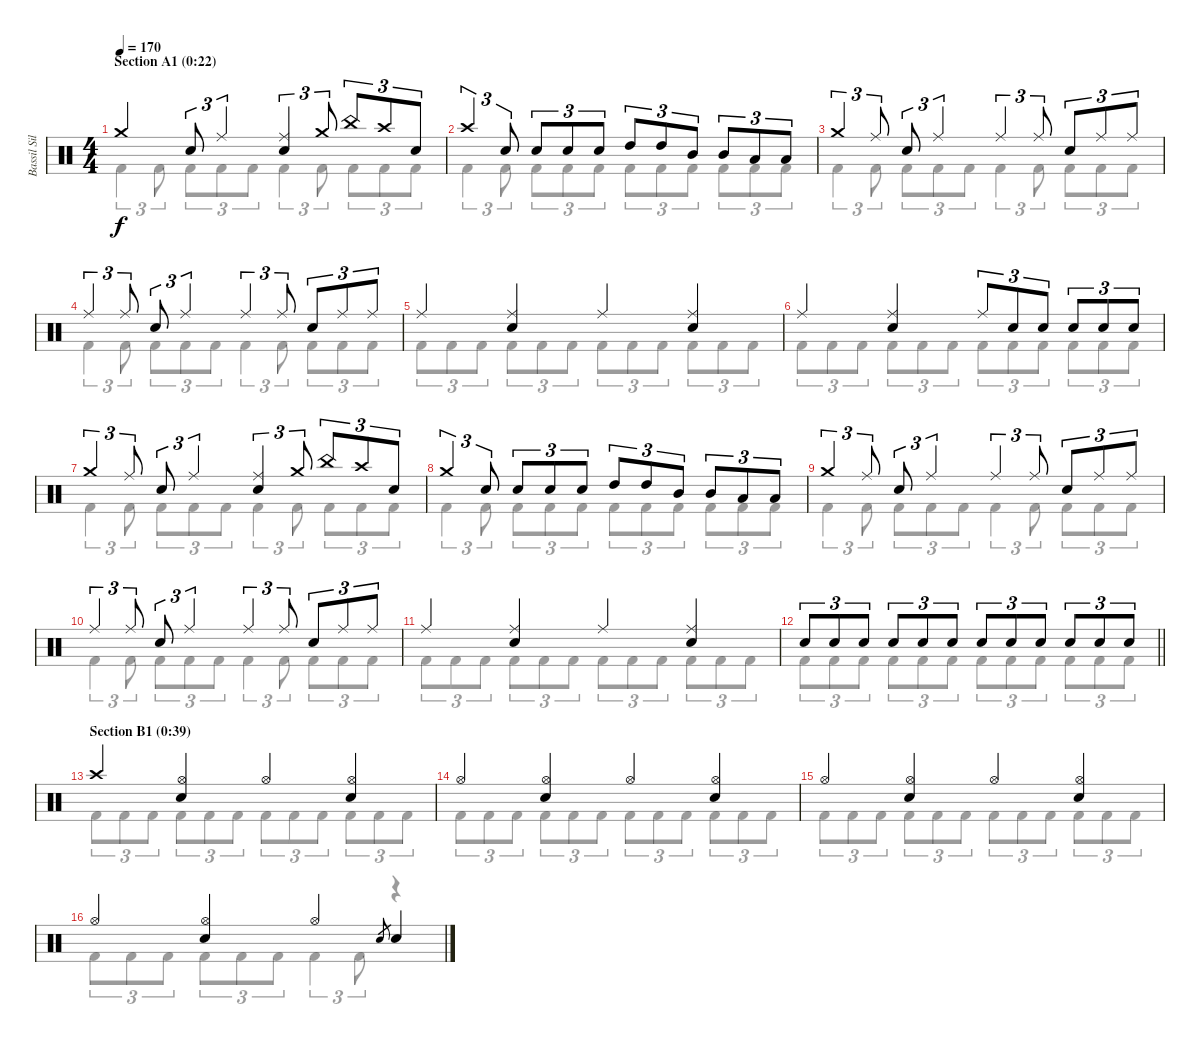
\track ("Bassil Silver-Hajo" "Bassil Sil") {instrument percussion}
\staff {score}
\articulation defaults
\voice
\ts (4 4)
\section ("" "Section A1 (0:22)")
\tempo 170
\clef neutral
\ks c "Crash medium (hit)".4{dy f} "Snare (hit) 2".8{tu (3 2)} "Ride (middle)".4{tu (3 2)}
("Ride (middle)" "Snare (hit) 2").4{tu (3 2)} "Crash medium (hit)".8{tu (3 2)} "China (hit)".8{tu (3 2)} "Crash high (hit)".8{tu (3 2)} "Snare (hit) 2".8{tu (3 2)} |
"Crash high (hit)".4{tu (3 2)} "Snare (hit) 2".8{tu (3 2)} "Snare (hit) 2".8{tu (3 2)} "Snare (hit) 2".8{tu (3 2)} "Snare (hit) 2".8{tu (3 2)} "High Tom (hit)".8{tu (3 2)} "High Tom (hit)".8{tu (3 2)} "Mid Tom (hit)".8{tu (3 2)} "Mid Tom (hit)".8{tu (3 2)} "Low Tom (hit)".8{tu (3 2)} "Low Tom (hit)".8{tu (3 2)} |
"Crash medium (hit)".4{tu (3 2)} "Ride (middle)".8{tu (3 2)} "Snare (hit) 2".8{tu (3 2)} "Ride (middle)".4{tu (3 2)} "Ride (middle)".4{tu (3 2)} "Ride (middle)".8{tu (3 2)} "Snare (hit) 2".8{tu (3 2)} "Ride (middle)".8{tu (3 2)} "Ride (middle)".8{tu (3 2)} |
"Ride (middle)".4{tu (3 2)} "Ride (middle)".8{tu (3 2)} "Snare (hit) 2".8{tu (3 2)} "Ride (middle)".4{tu (3 2)} "Ride (middle)".4{tu (3 2)} "Ride (middle)".8{tu (3 2)} "Snare (hit) 2".8{tu (3 2)} "Ride (middle)".8{tu (3 2)} "Ride (middle)".8{tu (3 2)} |
"Ride (middle)".4 ("Ride (middle)" "Snare (hit) 2").4 "Ride (middle)".4 ("Ride (middle)" "Snare (hit) 2").4 |
"Ride (middle)".4 ("Ride (middle)" "Snare (hit) 2").4 "Ride (middle)".8{tu (3 2)} "Snare (hit) 2".8{tu (3 2)} "Snare (hit) 2".8{tu (3 2)} "Snare (hit) 2".8{tu (3 2)} "Snare (hit) 2".8{tu (3 2)} "Snare (hit) 2".8{tu (3 2)} |
"Crash medium (hit)".4{tu (3 2)} "Ride (middle)".8{tu (3 2)} "Snare (hit) 2".8{tu (3 2)} "Ride (middle)".4{tu (3 2)} ("Ride (middle)" "Snare (hit) 2").4{tu (3 2)} "Crash medium (hit)".8{tu (3 2)} "China (hit)".8{tu (3 2)} "Crash high (hit)".8{tu (3 2)} "Snare (hit) 2".8{tu (3 2)} |
"Crash medium (hit)".4{tu (3 2)} "Snare (hit) 2".8{tu (3 2)} "Snare (hit) 2".8{tu (3 2)} "Snare (hit) 2".8{tu (3 2)} "Snare (hit) 2".8{tu (3 2)} "High Tom (hit)".8{tu (3 2)} "High Tom (hit)".8{tu (3 2)} "Mid Tom (hit)".8{tu (3 2)} "Mid Tom (hit)".8{tu (3 2)} "Low Tom (hit)".8{tu (3 2)} "Low Tom (hit)".8{tu (3 2)} |
"Crash medium (hit)".4{tu (3 2)} "Ride (middle)".8{tu (3 2)} "Snare (hit) 2".8{tu (3 2)} "Ride (middle)".4{tu (3 2)} "Ride (middle)".4{tu (3 2)} "Ride (middle)".8{tu (3 2)} "Snare (hit) 2".8{tu (3 2)} "Ride (middle)".8{tu (3 2)} "Ride (middle)".8{tu (3 2)} |
"Ride (middle)".4{tu (3 2)} "Ride (middle)".8{tu (3 2)} "Snare (hit) 2".8{tu (3 2)} "Ride (middle)".4{tu (3 2)} "Ride (middle)".4{tu (3 2)} "Ride (middle)".8{tu (3 2)} "Snare (hit) 2".8{tu (3 2)} "Ride (middle)".8{tu (3 2)} "Ride (middle)".8{tu (3 2)} |
"Ride (middle)".4 ("Ride (middle)" "Snare (hit) 2").4 "Ride (middle)".4 ("Ride (middle)" "Snare (hit) 2").4 |
\barLineRight lightlight "Snare (hit) 2".8{tu (3 2)} "Snare (hit) 2".8{tu (3 2)} "Snare (hit) 2".8{tu (3 2)} "Snare (hit) 2".8{tu (3 2)} "Snare (hit) 2".8{tu (3 2)} "Snare (hit) 2".8{tu (3 2)} "Snare (hit) 2".8{tu (3 2)} "Snare (hit) 2".8{tu (3 2)} "Snare (hit) 2".8{tu (3 2)} "Snare (hit) 2".8{tu (3 2)} "Snare (hit) 2".8{tu (3 2)} "Snare (hit) 2".8{tu (3 2)}
|
\section ("" "Section B1 (0:39)")
"Crash high (hit)".4 ("Hi-Hat (open)" "Snare (hit) 2").4 "Hi-Hat (open)".4 ("Hi-Hat (open)" "Snare (hit) 2").4 |
"Hi-Hat (open)".4 ("Hi-Hat (open)" "Snare (hit) 2").4 "Hi-Hat (open)".4 ("Hi-Hat (open)" "Snare (hit) 2").4 |
"Hi-Hat (open)".4 ("Hi-Hat (open)" "Snare (hit) 2").4 "Hi-Hat (open)".4 ("Hi-Hat (open)" "Snare (hit) 2").4 |
"Hi-Hat (open)".4 ("Hi-Hat (open)" "Snare (hit) 2").4 "Hi-Hat (open)".4 "Snare (hit) 2".8{gr} "Snare (hit) 2".4
\voice
\clef neutral
\ottava regular
\simile none
\ks c "Kick (hit) 2".4{tu (3 2) dy f} "Kick (hit) 2".8{tu (3 2)} "Kick (hit) 2".8{tu (3 2)} "Kick (hit) 2".8{tu (3 2)} "Kick (hit) 2".8{tu (3 2)} "Kick (hit) 2".4{tu (3 2)} "Kick (hit) 2".8{tu (3 2)} "Kick (hit) 2".8{tu (3 2)} "Kick (hit) 2".8{tu (3 2)} "Kick (hit) 2".8{tu (3 2)}
|
"Kick (hit) 2".4{tu (3 2)} "Kick (hit) 2".8{tu (3 2)} "Kick (hit) 2".8{tu (3 2)} "Kick (hit) 2".8{tu (3 2)} "Kick (hit) 2".8{tu (3 2)} "Kick (hit) 2".8{tu (3 2)} "Kick (hit) 2".8{tu (3 2)} "Kick (hit) 2".8{tu (3 2)} "Kick (hit) 2".8{tu (3 2)} "Kick (hit) 2".8{tu (3 2)} "Kick (hit) 2".8{tu (3 2)} |
"Kick (hit) 2".4{tu (3 2)} "Kick (hit) 2".8{tu (3 2)} "Kick (hit) 2".8{tu (3 2)} "Kick (hit) 2".8{tu (3 2)} "Kick (hit) 2".8{tu (3 2)} "Kick (hit) 2".4{tu (3 2)} "Kick (hit) 2".8{tu (3 2)} "Kick (hit) 2".8{tu (3 2)} "Kick (hit) 2".8{tu (3 2)} "Kick (hit) 2".8{tu (3 2)} |
"Kick (hit) 2".4{tu (3 2)} "Kick (hit) 2".8{tu (3 2)} "Kick (hit) 2".8{tu (3 2)} "Kick (hit) 2".8{tu (3 2)} "Kick (hit) 2".8{tu (3 2)} "Kick (hit) 2".4{tu (3 2)} "Kick (hit) 2".8{tu (3 2)} "Kick (hit) 2".8{tu (3 2)} "Kick (hit) 2".8{tu (3 2)} "Kick (hit) 2".8{tu (3 2)} |
"Kick (hit) 2".8{tu (3 2)} "Kick (hit) 2".8{tu (3 2)} "Kick (hit) 2".8{tu (3 2)} "Kick (hit) 2".8{tu (3 2)} "Kick (hit) 2".8{tu (3 2)} "Kick (hit) 2".8{tu (3 2)} "Kick (hit) 2".8{tu (3 2)} "Kick (hit) 2".8{tu (3 2)} "Kick (hit) 2".8{tu (3 2)} "Kick (hit) 2".8{tu (3 2)} "Kick (hit) 2".8{tu (3 2)} "Kick (hit) 2".8{tu (3 2)} |
"Kick (hit) 2".8{tu (3 2)} "Kick (hit) 2".8{tu (3 2)} "Kick (hit) 2".8{tu (3 2)} "Kick (hit) 2".8{tu (3 2)} "Kick (hit) 2".8{tu (3 2)} "Kick (hit) 2".8{tu (3 2)} "Kick (hit) 2".8{tu (3 2)} "Kick (hit) 2".8{tu (3 2)} "Kick (hit) 2".8{tu (3 2)} "Kick (hit) 2".8{tu (3 2)} "Kick (hit) 2".8{tu (3 2)} "Kick (hit) 2".8{tu (3 2)} |
"Kick (hit) 2".4{tu (3 2)} "Kick (hit) 2".8{tu (3 2)} "Kick (hit) 2".8{tu (3 2)} "Kick (hit) 2".8{tu (3 2)} "Kick (hit) 2".8{tu (3 2)} "Kick (hit) 2".4{tu (3 2)} "Kick (hit) 2".8{tu (3 2)} "Kick (hit) 2".8{tu (3 2)} "Kick (hit) 2".8{tu (3 2)} "Kick (hit) 2".8{tu (3 2)} |
"Kick (hit) 2".4{tu (3 2)} "Kick (hit) 2".8{tu (3 2)} "Kick (hit) 2".8{tu (3 2)} "Kick (hit) 2".8{tu (3 2)} "Kick (hit) 2".8{tu (3 2)} "Kick (hit) 2".8{tu (3 2)} "Kick (hit) 2".8{tu (3 2)} "Kick (hit) 2".8{tu (3 2)} "Kick (hit) 2".8{tu (3 2)} "Kick (hit) 2".8{tu (3 2)} "Kick (hit) 2".8{tu (3 2)} |
"Kick (hit) 2".4{tu (3 2)} "Kick (hit) 2".8{tu (3 2)} "Kick (hit) 2".8{tu (3 2)} "Kick (hit) 2".8{tu (3 2)} "Kick (hit) 2".8{tu (3 2)} "Kick (hit) 2".4{tu (3 2)} "Kick (hit) 2".8{tu (3 2)} "Kick (hit) 2".8{tu (3 2)} "Kick (hit) 2".8{tu (3 2)} "Kick (hit) 2".8{tu (3 2)} |
"Kick (hit) 2".4{tu (3 2)} "Kick (hit) 2".8{tu (3 2)} "Kick (hit) 2".8{tu (3 2)} "Kick (hit) 2".8{tu (3 2)} "Kick (hit) 2".8{tu (3 2)} "Kick (hit) 2".4{tu (3 2)} "Kick (hit) 2".8{tu (3 2)} "Kick (hit) 2".8{tu (3 2)} "Kick (hit) 2".8{tu (3 2)} "Kick (hit) 2".8{tu (3 2)} |
"Kick (hit) 2".8{tu (3 2)} "Kick (hit) 2".8{tu (3 2)} "Kick (hit) 2".8{tu (3 2)} "Kick (hit) 2".8{tu (3 2)} "Kick (hit) 2".8{tu (3 2)} "Kick (hit) 2".8{tu (3 2)} "Kick (hit) 2".8{tu (3 2)} "Kick (hit) 2".8{tu (3 2)} "Kick (hit) 2".8{tu (3 2)} "Kick (hit) 2".8{tu (3 2)} "Kick (hit) 2".8{tu (3 2)} "Kick (hit) 2".8{tu (3 2)} |
\barLineRight lightlight "Kick (hit) 2".8{tu (3 2)} "Kick (hit) 2".8{tu (3 2)} "Kick (hit) 2".8{tu (3 2)} "Kick (hit) 2".8{tu (3 2)} "Kick (hit) 2".8{tu (3 2)} "Kick (hit) 2".8{tu (3 2)} "Kick (hit) 2".8{tu (3 2)} "Kick (hit) 2".8{tu (3 2)} "Kick (hit) 2".8{tu (3 2)} "Kick (hit) 2".8{tu (3 2)} "Kick (hit) 2".8{tu (3 2)} "Kick (hit) 2".8{tu (3 2)}
|
"Kick (hit) 2".8{tu (3 2)} "Kick (hit) 2".8{tu (3 2)} "Kick (hit) 2".8{tu (3 2)} "Kick (hit) 2".8{tu (3 2)} "Kick (hit) 2".8{tu (3 2)} "Kick (hit) 2".8{tu (3 2)} "Kick (hit) 2".8{tu (3 2)} "Kick (hit) 2".8{tu (3 2)} "Kick (hit) 2".8{tu (3 2)} "Kick (hit) 2".8{tu (3 2)} "Kick (hit) 2".8{tu (3 2)} "Kick (hit) 2".8{tu (3 2)} |
"Kick (hit) 2".8{tu (3 2)} "Kick (hit) 2".8{tu (3 2)} "Kick (hit) 2".8{tu (3 2)} "Kick (hit) 2".8{tu (3 2)} "Kick (hit) 2".8{tu (3 2)} "Kick (hit) 2".8{tu (3 2)} "Kick (hit) 2".8{tu (3 2)} "Kick (hit) 2".8{tu (3 2)} "Kick (hit) 2".8{tu (3 2)} "Kick (hit) 2".8{tu (3 2)} "Kick (hit) 2".8{tu (3 2)} "Kick (hit) 2".8{tu (3 2)} |
"Kick (hit) 2".8{tu (3 2)} "Kick (hit) 2".8{tu (3 2)} "Kick (hit) 2".8{tu (3 2)} "Kick (hit) 2".8{tu (3 2)} "Kick (hit) 2".8{tu (3 2)} "Kick (hit) 2".8{tu (3 2)} "Kick (hit) 2".8{tu (3 2)} "Kick (hit) 2".8{tu (3 2)} "Kick (hit) 2".8{tu (3 2)} "Kick (hit) 2".8{tu (3 2)} "Kick (hit) 2".8{tu (3 2)} "Kick (hit) 2".8{tu (3 2)} |
"Kick (hit) 2".8{tu (3 2)} "Kick (hit) 2".8{tu (3 2)} "Kick (hit) 2".8{tu (3 2)} "Kick (hit) 2".8{tu (3 2)} "Kick (hit) 2".8{tu (3 2)} "Kick (hit) 2".8{tu (3 2)} "Kick (hit) 2".4{tu (3 2)} "Kick (hit) 2".8{tu (3 2)} r.4
